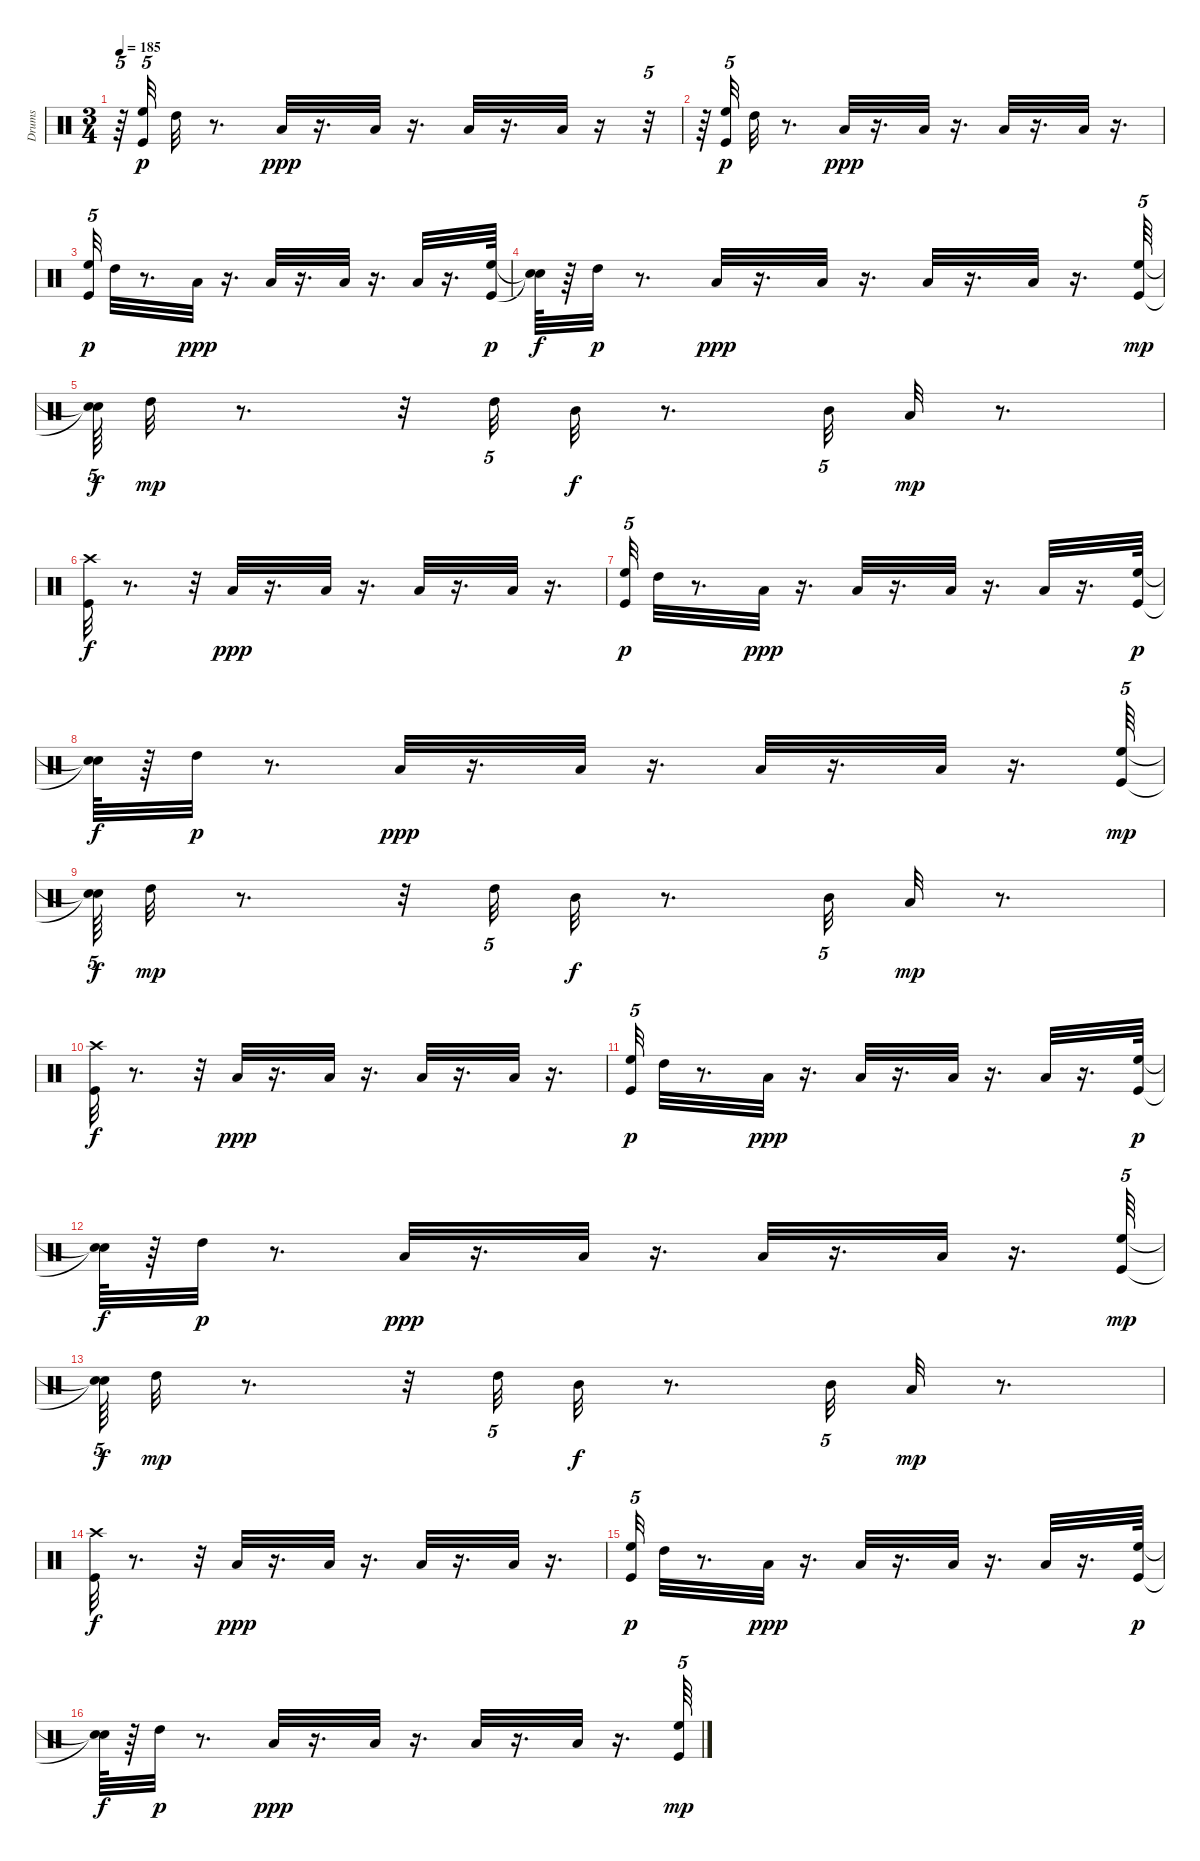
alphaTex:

\track ("Drums" "Drums") {instrument percussion}
\staff {score}
\articulation defaults
\ts (3 4)
\tempo 185
\clef neutral
\ks c
r.64{tu (5 4) dy ppp} ("High Floor Tom (hit)" "Kick (hit)").32{tu (5 4) dy p} "High Tom (hit)".32 r.8{d} "Low Floor Tom (hit)".32{dy ppp} r.16{d} "Low Floor Tom (hit)".32 r.16{d} "Low Floor Tom (hit)".32 r.16{d} "Low Floor Tom (hit)".32 r.16 r.32{tu (5 4)} |
r.64 ("High Floor Tom (hit)" "Kick (hit)").32{tu (5 4) dy p} "High Tom (hit)".32 r.8{d} "Low Floor Tom (hit)".32{dy ppp} r.16{d} "Low Floor Tom (hit)".32 r.16{d} "Low Floor Tom (hit)".32 r.16{d} "Low Floor Tom (hit)".32 r.16{d} |
("High Floor Tom (hit)" "Kick (hit)").32{tu (5 4) dy p} "High Tom (hit)".32 r.8{d} "Low Floor Tom (hit)".32{dy ppp} r.16{d} "Low Floor Tom (hit)".32 r.16{d} "Low Floor Tom (hit)".32 r.16{d} "Low Floor Tom (hit)".32 r.16{d} ("High Floor Tom (hit)" "Kick (hit)").64{dy p} |
("Snare (hit)"{t} "Snare (hit)"{t}).64{dy f} r.64 "High Tom (hit)".32{dy p} r.8{d} "Low Floor Tom (hit)".32{dy ppp} r.16{d} "Low Floor Tom (hit)".32 r.16{d} "Low Floor Tom (hit)".32 r.16{d} "Low Floor Tom (hit)".32 r.16{d} ("High Floor Tom (hit)" "Kick (hit)").64{tu (5 4) dy mp} |
("Snare (hit)"{t} "Snare (hit)"{t}).64{tu (5 4) dy f} "High Tom (hit)".32{dy mp} r.8{d} r.32 "High Tom (hit)".32{tu (5 4)} "Mid Tom (hit)".32{dy f} r.8{d} "Mid Tom (hit)".32{tu (5 4)} "Low Tom (hit)".32{dy mp} r.8{d} |
("Crash high (hit)" "Kick (hit)").32{dy f} r.8{d} r.32 "Low Floor Tom (hit)".32{dy ppp} r.16{d} "Low Floor Tom (hit)".32 r.16{d} "Low Floor Tom (hit)".32 r.16{d} "Low Floor Tom (hit)".32 r.16{d} |
("High Floor Tom (hit)" "Kick (hit)").32{tu (5 4) dy p} "High Tom (hit)".32 r.8{d} "Low Floor Tom (hit)".32{dy ppp} r.16{d} "Low Floor Tom (hit)".32 r.16{d} "Low Floor Tom (hit)".32 r.16{d} "Low Floor Tom (hit)".32 r.16{d} ("High Floor Tom (hit)" "Kick (hit)").64{dy p} |
("Snare (hit)"{t} "Snare (hit)"{t}).64{dy f} r.64 "High Tom (hit)".32{dy p} r.8{d} "Low Floor Tom (hit)".32{dy ppp} r.16{d} "Low Floor Tom (hit)".32 r.16{d} "Low Floor Tom (hit)".32 r.16{d} "Low Floor Tom (hit)".32 r.16{d} ("High Floor Tom (hit)" "Kick (hit)").64{tu (5 4) dy mp} |
("Snare (hit)"{t} "Snare (hit)"{t}).64{tu (5 4) dy f} "High Tom (hit)".32{dy mp} r.8{d} r.32 "High Tom (hit)".32{tu (5 4)} "Mid Tom (hit)".32{dy f} r.8{d} "Mid Tom (hit)".32{tu (5 4)} "Low Tom (hit)".32{dy mp} r.8{d} |
("Crash high (hit)" "Kick (hit)").32{dy f} r.8{d} r.32 "Low Floor Tom (hit)".32{dy ppp} r.16{d} "Low Floor Tom (hit)".32 r.16{d} "Low Floor Tom (hit)".32 r.16{d} "Low Floor Tom (hit)".32 r.16{d} |
("High Floor Tom (hit)" "Kick (hit)").32{tu (5 4) dy p} "High Tom (hit)".32 r.8{d} "Low Floor Tom (hit)".32{dy ppp} r.16{d} "Low Floor Tom (hit)".32 r.16{d} "Low Floor Tom (hit)".32 r.16{d} "Low Floor Tom (hit)".32 r.16{d} ("High Floor Tom (hit)" "Kick (hit)").64{dy p} |
("Snare (hit)"{t} "Snare (hit)"{t}).64{dy f} r.64 "High Tom (hit)".32{dy p} r.8{d} "Low Floor Tom (hit)".32{dy ppp} r.16{d} "Low Floor Tom (hit)".32 r.16{d} "Low Floor Tom (hit)".32 r.16{d} "Low Floor Tom (hit)".32 r.16{d} ("High Floor Tom (hit)" "Kick (hit)").64{tu (5 4) dy mp} |
("Snare (hit)"{t} "Snare (hit)"{t}).64{tu (5 4) dy f} "High Tom (hit)".32{dy mp} r.8{d} r.32 "High Tom (hit)".32{tu (5 4)} "Mid Tom (hit)".32{dy f} r.8{d} "Mid Tom (hit)".32{tu (5 4)} "Low Tom (hit)".32{dy mp} r.8{d} |
("Crash high (hit)" "Kick (hit)").32{dy f} r.8{d} r.32 "Low Floor Tom (hit)".32{dy ppp} r.16{d} "Low Floor Tom (hit)".32 r.16{d} "Low Floor Tom (hit)".32 r.16{d} "Low Floor Tom (hit)".32 r.16{d} |
("High Floor Tom (hit)" "Kick (hit)").32{tu (5 4) dy p} "High Tom (hit)".32 r.8{d} "Low Floor Tom (hit)".32{dy ppp} r.16{d} "Low Floor Tom (hit)".32 r.16{d} "Low Floor Tom (hit)".32 r.16{d} "Low Floor Tom (hit)".32 r.16{d} ("High Floor Tom (hit)" "Kick (hit)").64{dy p} |
("Snare (hit)"{t} "Snare (hit)"{t}).64{dy f} r.64 "High Tom (hit)".32{dy p} r.8{d} "Low Floor Tom (hit)".32{dy ppp} r.16{d} "Low Floor Tom (hit)".32 r.16{d} "Low Floor Tom (hit)".32 r.16{d} "Low Floor Tom (hit)".32 r.16{d} ("High Floor Tom (hit)" "Kick (hit)").64{tu (5 4) dy mp}
